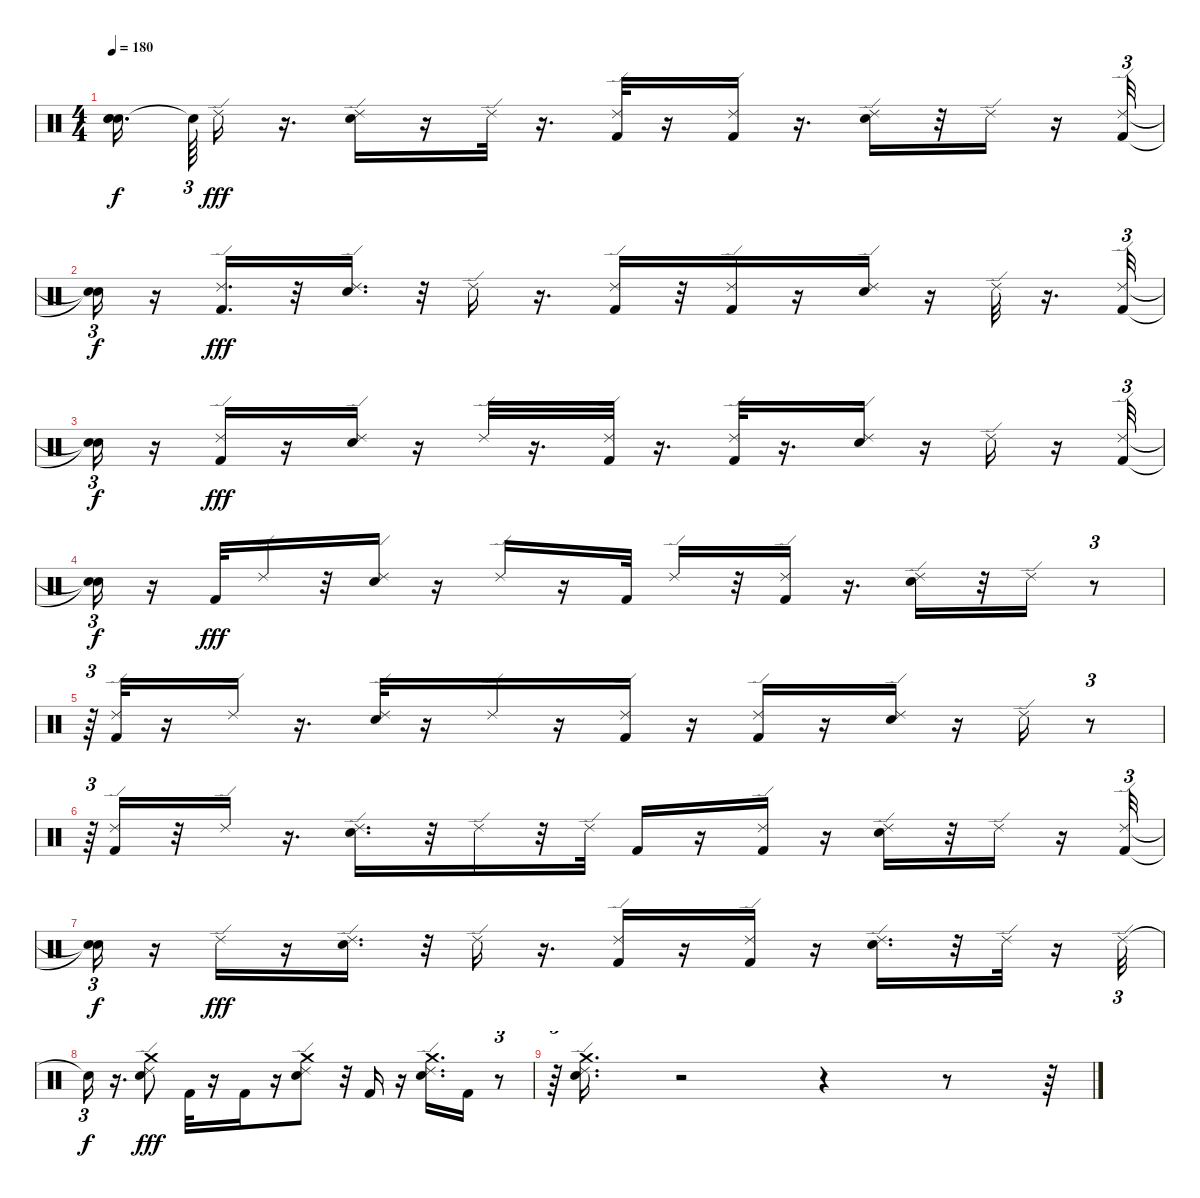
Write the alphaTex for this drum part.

\track "" {instrument percussion}
\staff {score}
\articulation defaults
\ts (4 4)
\tempo 180
\clef neutral
\ks c
("Snare (hit)"{t} "Snare (hit)"{t} "Snare (hit)"{t}).16{d dy f beam splitsecondary} "Snare (hit)"{t}.64{tu (3 2)} "Ride (edge) 2".16{dy fff} r.16{d} ("Ride (edge) 2" "Snare (hit) 2").16 r.16 "Ride (edge) 2".32 r.16{d} ("Kick (hit) 2" "Ride (edge) 2").32 r.16 ("Kick (hit) 2" "Ride (edge) 2").16 r.16{d} ("Ride (edge) 2" "Snare (hit) 2").16 r.32 "Ride (edge) 2".16 r.16 ("Kick (hit) 2" "Ride (edge) 2").32{tu (3 2)} |
("Snare (hit)"{t} "Snare (hit)"{t}).16{tu (3 2) dy f} r.16 ("Kick (hit) 2" "Ride (edge) 2").16{d dy fff} r.32 ("Ride (edge) 2" "Snare (hit) 2").16{d} r.32 "Ride (edge) 2".16 r.16{d} ("Kick (hit) 2" "Ride (edge) 2").16 r.32 ("Kick (hit) 2" "Ride (edge) 2").16 r.16 ("Ride (edge) 2" "Snare (hit) 2").16 r.16 "Ride (edge) 2".32 r.16{d} ("Kick (hit) 2" "Ride (edge) 2").32{tu (3 2)} |
("Snare (hit)"{t} "Snare (hit)"{t}).16{tu (3 2) dy f} r.16 ("Kick (hit) 2" "Ride (edge) 2").16{dy fff} r.16 ("Ride (edge) 2" "Snare (hit) 2").16 r.16 "Ride (edge) 2".32 r.16{d} ("Kick (hit) 2" "Ride (edge) 2").32 r.16{d} ("Kick (hit) 2" "Ride (edge) 2").32 r.16{d} ("Ride (edge) 2" "Snare (hit) 2").16 r.16 "Ride (edge) 2".16 r.16 ("Kick (hit) 2" "Ride (edge) 2").32{tu (3 2)} |
("Snare (hit)"{t} "Snare (hit)"{t}).16{tu (3 2) dy f} r.16 "Kick (hit) 2".32{dy fff} "Ride (edge) 2".16 r.32 ("Snare (hit) 2" "Ride (edge) 2").16 r.16 "Ride (edge) 2".16 r.16 "Kick (hit) 2".32 "Ride (edge) 2".16 r.32 ("Kick (hit) 2" "Ride (edge) 2").16 r.16{d} ("Ride (edge) 2" "Snare (hit) 2").16 r.32 "Ride (edge) 2".16 r.8{tu (3 2)} |
r.64{tu (3 2)} ("Kick (hit) 2" "Ride (edge) 2").32 r.16 "Ride (edge) 2".16 r.16{d} ("Ride (edge) 2" "Snare (hit) 2").32 r.16 "Ride (edge) 2".16 r.16 ("Ride (edge) 2" "Kick (hit) 2").16 r.16 ("Kick (hit) 2" "Ride (edge) 2").16 r.16 ("Ride (edge) 2" "Snare (hit) 2").16 r.16 "Ride (edge) 2".16 r.8{tu (3 2)} |
r.64{tu (3 2)} ("Kick (hit) 2" "Ride (edge) 2").16 r.32 "Ride (edge) 2".16 r.16{d} ("Ride (edge) 2" "Snare (hit) 2").16{d} r.32 "Ride (edge) 2".16 r.32 "Ride (edge) 2".32 "Kick (hit) 2".16 r.16 ("Ride (edge) 2" "Kick (hit) 2").16 r.16 ("Ride (edge) 2" "Snare (hit) 2").16 r.32 "Ride (edge) 2".16 r.16 ("Kick (hit) 2" "Ride (edge) 2").32{tu (3 2)} |
("Snare (hit)"{t} "Snare (hit)"{t}).16{tu (3 2) dy f} r.16 "Ride (edge) 2".16{dy fff} r.16 ("Ride (edge) 2" "Snare (hit) 2").16{d} r.32 "Ride (edge) 2".16 r.16{d} ("Kick (hit) 2" "Ride (edge) 2").16 r.16 ("Kick (hit) 2" "Ride (edge) 2").16 r.16 ("Ride (edge) 2" "Snare (hit) 2").16{d} r.32 "Ride (edge) 2".32 r.16 "Ride (edge) 2".32{tu (3 2)} |
"Snare (hit)"{t}.16{tu (3 2) dy f} r.16{d} ("Ride (edge) 2" "Crash medium (hit)" "Snare (hit) 2").8{dy fff} "Kick (hit) 2".32 r.16 "Kick (hit) 2".16 r.16 ("Ride (edge) 2" "Crash medium (hit)" "Snare (hit) 2").8 r.32 "Kick (hit) 2".16 r.16 ("Ride (edge) 2" "Crash medium (hit)" "Snare (hit) 2").16{d} "Kick (hit) 2".16 r.8{tu (3 2)} |
r.64{tu (3 2)} ("Ride (edge) 2" "Crash medium (hit)" "Snare (hit) 2").16{d} r.2 r.4 r.8 r.64
